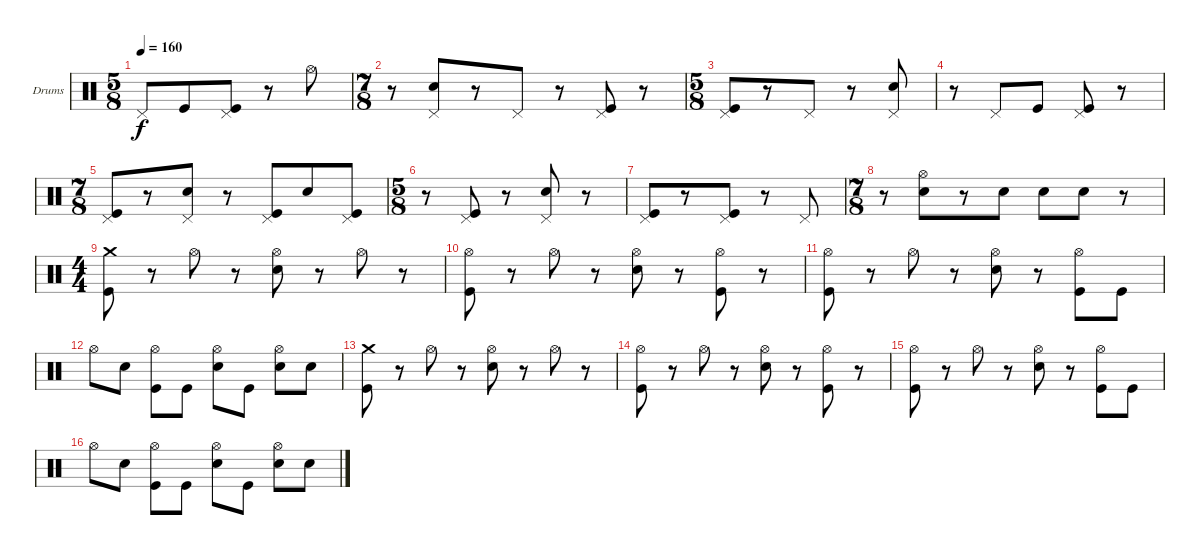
\bracketExtendMode groupsimilarinstruments
\firstSystemTrackNameOrientation horizontal
\otherSystemsTrackNameOrientation horizontal
\track ("Drumkit" "Drums") {instrument percussion}
\staff {score}
\articulation defaults
\ts (5 8)
\tempo 160
\clef neutral
\ks c "Pedal Hi-Hat (hit)".8{dy f} "Kick (hit)".8
("Pedal Hi-Hat (hit)" "Kick (hit)").8 r.8 "Hi-Hat (open)".8 |
\ts (7 8)
r.8 ("Pedal Hi-Hat (hit)" "Snare (hit) 2").8 r.8 "Pedal Hi-Hat (hit)".8 r.8 ("Pedal Hi-Hat (hit)" "Kick (hit)").8 r.8 |
\ts (5 8)
("Pedal Hi-Hat (hit)" "Kick (hit)").8 r.8 "Pedal Hi-Hat (hit)".8 r.8 ("Pedal Hi-Hat (hit)" "Snare (hit) 2").8 |
r.8 "Pedal Hi-Hat (hit)".8 "Kick (hit)".8 ("Pedal Hi-Hat (hit)" "Kick (hit)").8 r.8 |
\ts (7 8)
("Pedal Hi-Hat (hit)" "Kick (hit)").8 r.8 ("Pedal Hi-Hat (hit)" "Snare (hit) 2").8 r.8 ("Pedal Hi-Hat (hit)" "Kick (hit)").8 "Snare (hit) 2".8 ("Pedal Hi-Hat (hit)" "Kick (hit)").8 |
\ts (5 8)
r.8 ("Pedal Hi-Hat (hit)" "Kick (hit)").8 r.8 ("Pedal Hi-Hat (hit)" "Snare (hit) 2").8 r.8 |
("Pedal Hi-Hat (hit)" "Kick (hit)").8 r.8 ("Pedal Hi-Hat (hit)" "Kick (hit)").8 r.8 "Pedal Hi-Hat (hit)".8 |
\ts (7 8)
r.8 ("Hi-Hat (open)" "Snare (hit) 2").8 r.8 "Snare (hit) 2".8 "Snare (hit) 2".8 "Snare (hit) 2".8 r.8 |
\ts (4 4)
("Crash medium (hit)" "Kick (hit)").8 r.8 "Hi-Hat (open)".8 r.8 ("Hi-Hat (open)" "Snare (hit) 2").8 r.8 "Hi-Hat (open)".8 r.8 |
("Hi-Hat (open)" "Kick (hit)").8 r.8 "Hi-Hat (open)".8 r.8 ("Hi-Hat (open)" "Snare (hit) 2").8 r.8 ("Hi-Hat (open)" "Kick (hit)").8 r.8 |
("Hi-Hat (open)" "Kick (hit)").8 r.8 "Hi-Hat (open)".8 r.8 ("Hi-Hat (open)" "Snare (hit) 2").8 r.8 ("Hi-Hat (open)" "Kick (hit)").8 "Kick (hit)".8 |
"Hi-Hat (open)".8 "Snare (hit) 2".8 ("Hi-Hat (open)" "Kick (hit)").8 "Kick (hit)".8 ("Hi-Hat (open)" "Snare (hit) 2").8 "Kick (hit)".8 ("Hi-Hat (open)" "Snare (hit) 2").8 "Snare (hit) 2".8 |
("Crash medium (hit)" "Kick (hit)").8 r.8 "Hi-Hat (open)".8 r.8 ("Hi-Hat (open)" "Snare (hit) 2").8 r.8 "Hi-Hat (open)".8 r.8 |
("Hi-Hat (open)" "Kick (hit)").8 r.8 "Hi-Hat (open)".8 r.8 ("Hi-Hat (open)" "Snare (hit) 2").8 r.8 ("Hi-Hat (open)" "Kick (hit)").8 r.8 |
("Hi-Hat (open)" "Kick (hit)").8 r.8 "Hi-Hat (open)".8 r.8 ("Hi-Hat (open)" "Snare (hit) 2").8 r.8 ("Hi-Hat (open)" "Kick (hit)").8 "Kick (hit)".8 |
"Hi-Hat (open)".8 "Snare (hit) 2".8 ("Hi-Hat (open)" "Kick (hit)").8 "Kick (hit)".8 ("Hi-Hat (open)" "Snare (hit) 2").8 "Kick (hit)".8 ("Hi-Hat (open)" "Snare (hit) 2").8 "Snare (hit) 2".8
